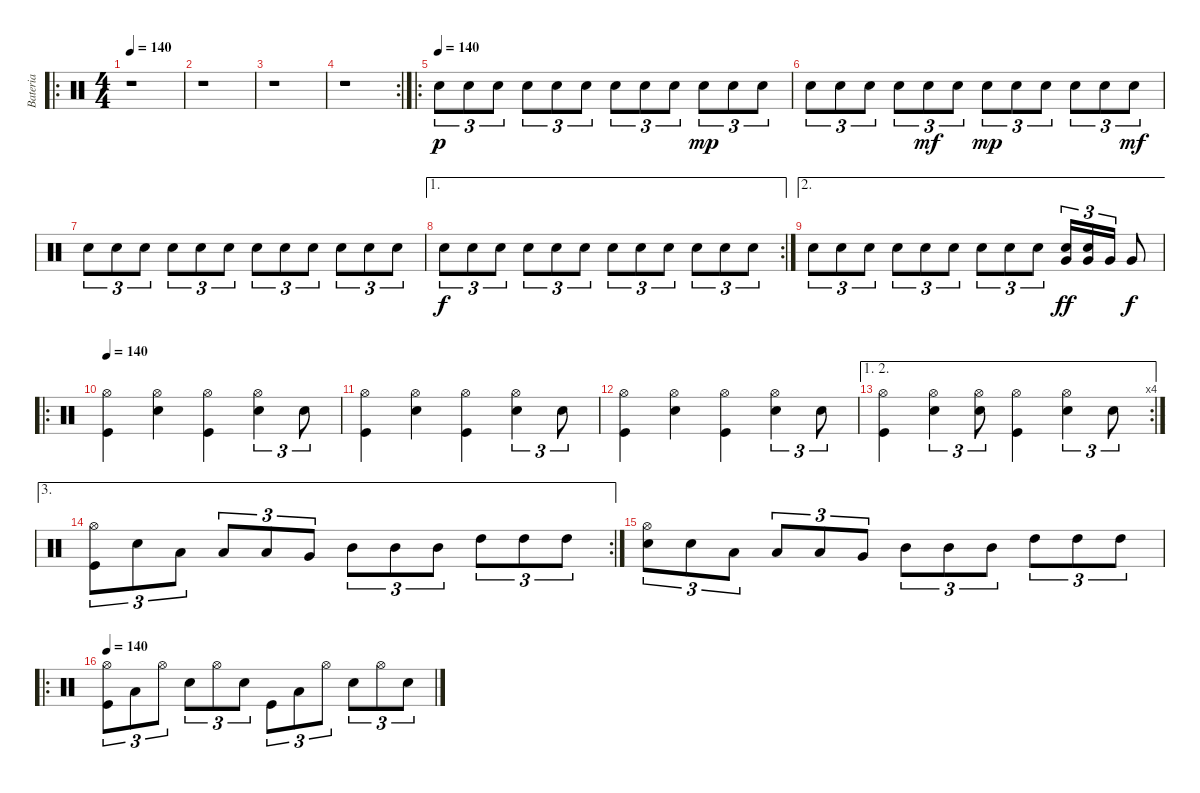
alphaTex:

\track ("Bateria" "Bateria") {instrument percussion}
\staff {score}
\articulation defaults
\ro
\ts (4 4)
\tempo 140
\clef neutral
\ks c
r.1{dy f} |
r.1 |
r.1 |
\rc 2
r.1 |
\ro
\section ("" "")
\tempo (140)
"Snare (hit) 2".8{tu (3 2) dy p} "Snare (hit) 2".8{tu (3 2)} "Snare (hit) 2".8{tu (3 2)} "Snare (hit) 2".8{tu (3 2)} "Snare (hit) 2".8{tu (3 2)} "Snare (hit) 2".8{tu (3 2)} "Snare (hit) 2".8{tu (3 2)} "Snare (hit) 2".8{tu (3 2)} "Snare (hit) 2".8{tu (3 2)} "Snare (hit) 2".8{tu (3 2) dy mp} "Snare (hit) 2".8{tu (3 2)} "Snare (hit) 2".8{tu (3 2)} |
"Snare (hit) 2".8{tu (3 2)} "Snare (hit) 2".8{tu (3 2)} "Snare (hit) 2".8{tu (3 2)} "Snare (hit) 2".8{tu (3 2)} "Snare (hit) 2".8{tu (3 2) dy mf} "Snare (hit) 2".8{tu (3 2)} "Snare (hit) 2".8{tu (3 2) dy mp} "Snare (hit) 2".8{tu (3 2)} "Snare (hit) 2".8{tu (3 2)} "Snare (hit) 2".8{tu (3 2)} "Snare (hit) 2".8{tu (3 2)} "Snare (hit) 2".8{tu (3 2) dy mf} |
"Snare (hit) 2".8{tu (3 2)} "Snare (hit) 2".8{tu (3 2)} "Snare (hit) 2".8{tu (3 2)} "Snare (hit) 2".8{tu (3 2)} "Snare (hit) 2".8{tu (3 2)} "Snare (hit) 2".8{tu (3 2)} "Snare (hit) 2".8{tu (3 2)} "Snare (hit) 2".8{tu (3 2)} "Snare (hit) 2".8{tu (3 2)} "Snare (hit) 2".8{tu (3 2)} "Snare (hit) 2".8{tu (3 2)} "Snare (hit) 2".8{tu (3 2)} |
\ae 1
\rc 2 "Snare (hit) 2".8{tu (3 2) dy f} "Snare (hit) 2".8{tu (3 2)} "Snare (hit) 2".8{tu (3 2)} "Snare (hit) 2".8{tu (3 2)} "Snare (hit) 2".8{tu (3 2)} "Snare (hit) 2".8{tu (3 2)} "Snare (hit) 2".8{tu (3 2)} "Snare (hit) 2".8{tu (3 2)} "Snare (hit) 2".8{tu (3 2)} "Snare (hit) 2".8{tu (3 2)} "Snare (hit) 2".8{tu (3 2)} "Snare (hit) 2".8{tu (3 2)}
|
\ae 2 "Snare (hit) 2".8{tu (3 2)} "Snare (hit) 2".8{tu (3 2)} "Snare (hit) 2".8{tu (3 2)} "Snare (hit) 2".8{tu (3 2)} "Snare (hit) 2".8{tu (3 2)} "Snare (hit) 2".8{tu (3 2)} "Snare (hit) 2".8{tu (3 2)} "Snare (hit) 2".8{tu (3 2)} "Snare (hit) 2".8{tu (3 2)}
("Very Low Tom (hit)" "Snare (hit) 2").16{tu (3 2) dy ff} ("Very Low Tom (hit)" "Snare (hit) 2").16{tu (3 2)} "Very Low Tom (hit)".16{tu (3 2)} "Very Low Tom (hit)".8{dy f} |
\ro
\tempo 140
("Hi-Hat (open)" "Kick (hit)").4 ("Hi-Hat (open)" "Snare (hit) 2").4 ("Hi-Hat (open)" "Kick (hit)").4 ("Hi-Hat (open)" "Snare (hit) 2").4{tu (3 2)} "Snare (hit) 2".8{tu (3 2)} |
("Hi-Hat (open)" "Kick (hit)").4 ("Hi-Hat (open)" "Snare (hit) 2").4 ("Hi-Hat (open)" "Kick (hit)").4 ("Hi-Hat (open)" "Snare (hit) 2").4{tu (3 2)} "Snare (hit) 2".8{tu (3 2)} |
("Hi-Hat (open)" "Kick (hit)").4 ("Hi-Hat (open)" "Snare (hit) 2").4 ("Hi-Hat (open)" "Kick (hit)").4 ("Hi-Hat (open)" "Snare (hit) 2").4{tu (3 2)} "Snare (hit) 2".8{tu (3 2)} |
\ae (1 2)
\rc 4
("Hi-Hat (open)" "Kick (hit)").4 ("Hi-Hat (open)" "Snare (hit) 2").4{tu (3 2)} ("Hi-Hat (open)" "Snare (hit) 2").8{tu (3 2)} ("Hi-Hat (open)" "Kick (hit)").4 ("Hi-Hat (open)" "Snare (hit) 2").4{tu (3 2)} "Snare (hit) 2".8{tu (3 2)} |
\ae 3
\rc 2
("Hi-Hat (open)" "Kick (hit)").8{tu (3 2)} "Snare (hit) 2".8{tu (3 2)} "Low Tom (hit)".8{tu (3 2)} "Low Tom (hit)".8{tu (3 2)} "Low Tom (hit)".8{tu (3 2)} "Very Low Tom (hit)".8{tu (3 2)} "Mid Tom (hit)".8{tu (3 2)} "Mid Tom (hit)".8{tu (3 2)} "Mid Tom (hit)".8{tu (3 2)} "High Tom (hit)".8{tu (3 2)} "High Tom (hit)".8{tu (3 2)} "High Tom (hit)".8{tu (3 2)} |
("Hi-Hat (open)" "Snare (hit) 2").8{tu (3 2)} "Snare (hit) 2".8{tu (3 2)} "Low Tom (hit)".8{tu (3 2)} "Low Tom (hit)".8{tu (3 2)} "Low Tom (hit)".8{tu (3 2)} "Very Low Tom (hit)".8{tu (3 2)} "Mid Tom (hit)".8{tu (3 2)} "Mid Tom (hit)".8{tu (3 2)} "Mid Tom (hit)".8{tu (3 2)} "High Tom (hit)".8{tu (3 2)} "High Tom (hit)".8{tu (3 2)} "High Tom (hit)".8{tu (3 2)} |
\ro
\tempo 140
("Hi-Hat (open)" "Kick (hit)").8{tu (3 2)} "Low Tom (hit)".8{tu (3 2)} "Hi-Hat (open)".8{tu (3 2)} "Snare (hit) 2".8{tu (3 2)} "Hi-Hat (open)".8{tu (3 2)} "Snare (hit) 2".8{tu (3 2)} "Kick (hit)".8{tu (3 2)} "Low Tom (hit)".8{tu (3 2)} "Hi-Hat (open)".8{tu (3 2)} "Snare (hit) 2".8{tu (3 2)} "Hi-Hat (open)".8{tu (3 2)} "Snare (hit) 2".8{tu (3 2)}
